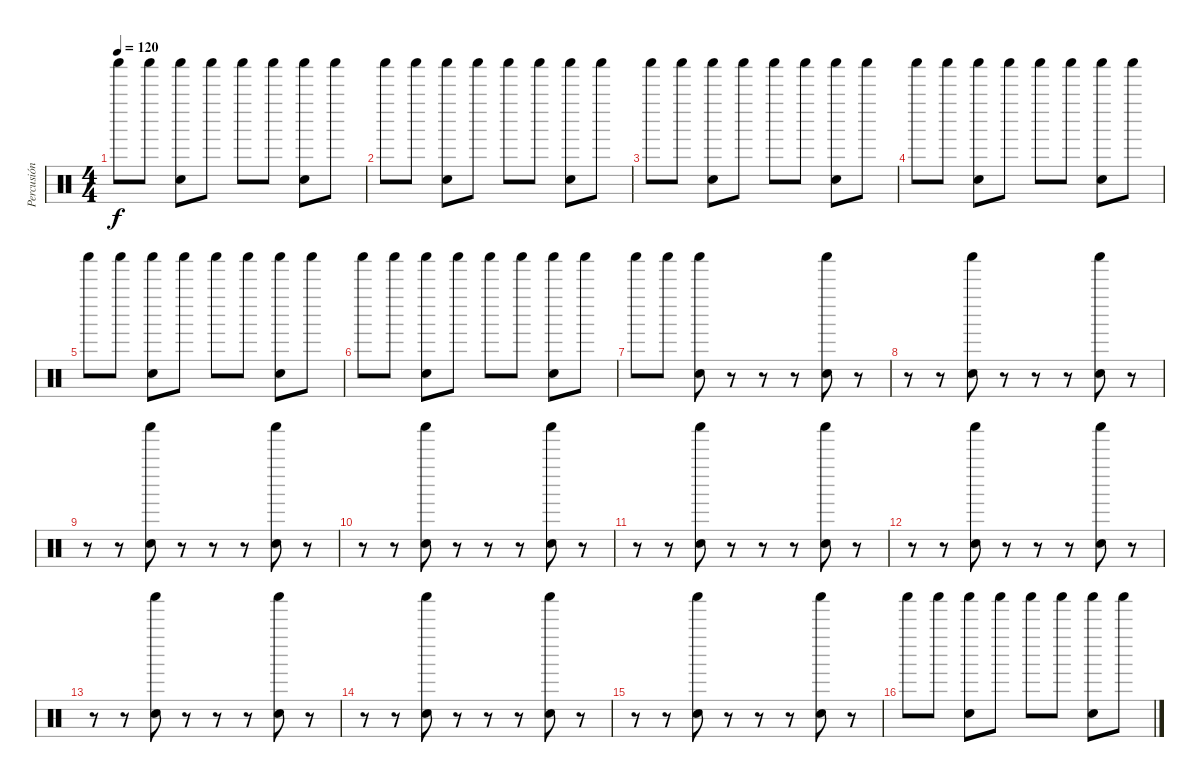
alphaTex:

\track ("Percusión" "Percusión") {instrument percussion}
\staff {score}
\articulation defaults
\ts (4 4)
\tempo 120
\clef neutral
\ks c "Shaker (hit)".8{dy f} "Shaker (hit)".8
("Shaker (hit)" "Hand Clap (hit)").8 "Shaker (hit)".8 "Shaker (hit)".8 "Shaker (hit)".8 ("Shaker (hit)" "Hand Clap (hit)").8 "Shaker (hit)".8 |
"Shaker (hit)".8 "Shaker (hit)".8 ("Shaker (hit)" "Hand Clap (hit)").8 "Shaker (hit)".8 "Shaker (hit)".8 "Shaker (hit)".8 ("Shaker (hit)" "Hand Clap (hit)").8 "Shaker (hit)".8 |
"Shaker (hit)".8 "Shaker (hit)".8 ("Shaker (hit)" "Hand Clap (hit)").8 "Shaker (hit)".8 "Shaker (hit)".8 "Shaker (hit)".8 ("Shaker (hit)" "Hand Clap (hit)").8 "Shaker (hit)".8 |
"Shaker (hit)".8 "Shaker (hit)".8 ("Shaker (hit)" "Hand Clap (hit)").8 "Shaker (hit)".8 "Shaker (hit)".8 "Shaker (hit)".8 ("Shaker (hit)" "Hand Clap (hit)").8 "Shaker (hit)".8 |
"Shaker (hit)".8 "Shaker (hit)".8 ("Shaker (hit)" "Hand Clap (hit)").8 "Shaker (hit)".8 "Shaker (hit)".8 "Shaker (hit)".8 ("Shaker (hit)" "Hand Clap (hit)").8 "Shaker (hit)".8 |
"Shaker (hit)".8 "Shaker (hit)".8 ("Shaker (hit)" "Hand Clap (hit)").8 "Shaker (hit)".8 "Shaker (hit)".8 "Shaker (hit)".8 ("Shaker (hit)" "Hand Clap (hit)").8 "Shaker (hit)".8 |
"Shaker (hit)".8 "Shaker (hit)".8 ("Shaker (hit)" "Hand Clap (hit)").8 r.8 r.8 r.8 ("Shaker (hit)" "Hand Clap (hit)").8 r.8 |
r.8 r.8 ("Shaker (hit)" "Hand Clap (hit)").8 r.8 r.8 r.8 ("Shaker (hit)" "Hand Clap (hit)").8 r.8 |
r.8 r.8 ("Shaker (hit)" "Hand Clap (hit)").8 r.8 r.8 r.8 ("Shaker (hit)" "Hand Clap (hit)").8 r.8 |
r.8 r.8 ("Shaker (hit)" "Hand Clap (hit)").8 r.8 r.8 r.8 ("Shaker (hit)" "Hand Clap (hit)").8 r.8 |
r.8 r.8 ("Shaker (hit)" "Hand Clap (hit)").8 r.8 r.8 r.8 ("Shaker (hit)" "Hand Clap (hit)").8 r.8 |
r.8 r.8 ("Shaker (hit)" "Hand Clap (hit)").8 r.8 r.8 r.8 ("Shaker (hit)" "Hand Clap (hit)").8 r.8 |
r.8 r.8 ("Shaker (hit)" "Hand Clap (hit)").8 r.8 r.8 r.8 ("Shaker (hit)" "Hand Clap (hit)").8 r.8 |
r.8 r.8 ("Shaker (hit)" "Hand Clap (hit)").8 r.8 r.8 r.8 ("Shaker (hit)" "Hand Clap (hit)").8 r.8 |
r.8 r.8 ("Shaker (hit)" "Hand Clap (hit)").8 r.8 r.8 r.8 ("Shaker (hit)" "Hand Clap (hit)").8 r.8 |
"Shaker (hit)".8 "Shaker (hit)".8 ("Shaker (hit)" "Hand Clap (hit)").8 "Shaker (hit)".8 "Shaker (hit)".8 "Shaker (hit)".8 ("Shaker (hit)" "Hand Clap (hit)").8 "Shaker (hit)".8
